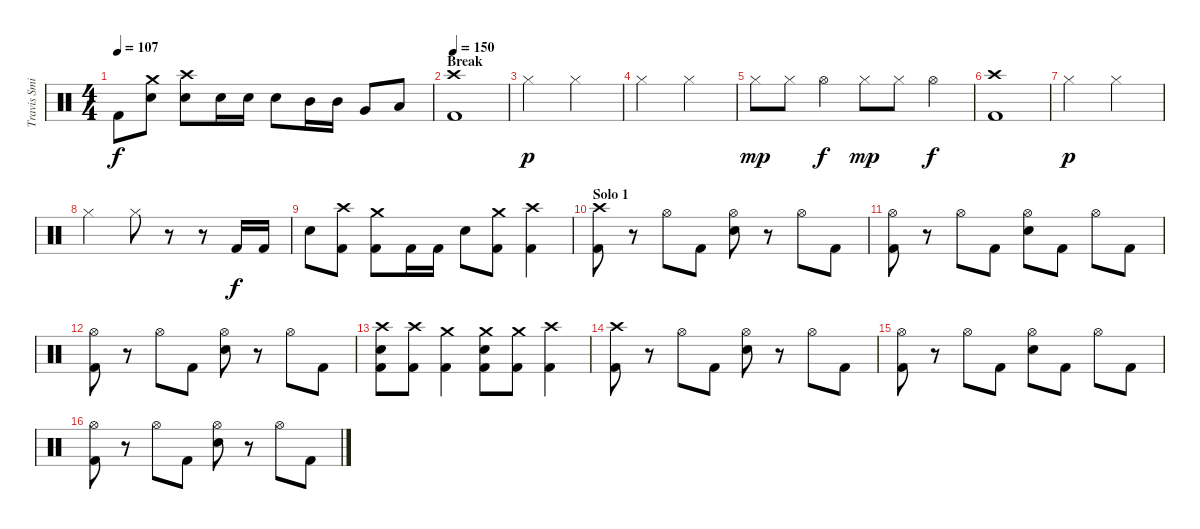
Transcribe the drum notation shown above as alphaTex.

\track ("Travis Smith" "Travis Smi") {instrument percussion}
\staff {score}
\articulation defaults
\ts (4 4)
\tempo 107
\clef neutral
\ks c "Kick (hit) 2".8{dy f}
("Crash medium (hit)" "Electric Snare (hit)").8 ("Crash high (hit)" "Electric Snare (hit)").8 "Electric Snare (hit)".16 "Electric Snare (hit)".16 "Electric Snare (hit)".8 "Mid Tom (hit)".16 "Mid Tom (hit)".16 "Very Low Tom (hit)".8 "Low Floor Tom (hit)".8 |
\section ("" "Break")
\tempo 150
("Crash high (hit)" "Kick (hit) 2").1 |
"Hi-Hat (closed)".2{dy p} "Hi-Hat (closed)".2 |
"Hi-Hat (closed)".2 "Hi-Hat (closed)".2 |
"Hi-Hat (closed)".8{dy mp} "Hi-Hat (closed)".8 "Hi-Hat (open)".4{dy f} "Hi-Hat (closed)".8{dy mp} "Hi-Hat (closed)".8 "Hi-Hat (open)".4{dy f} |
("Crash high (hit)" "Kick (hit) 2").1 |
"Hi-Hat (closed)".2{dy p} "Hi-Hat (closed)".2 |
"Hi-Hat (closed)".2 "Hi-Hat (closed)".8 r.8 r.8 "Kick (hit) 2".16{dy f} "Kick (hit) 2".16 |
"Electric Snare (hit)".8 ("Crash high (hit)" "Kick (hit) 2").8 ("Crash medium (hit)" "Kick (hit) 2").8 "Kick (hit) 2".16 "Kick (hit) 2".16 "Electric Snare (hit)".8 ("Crash medium (hit)" "Kick (hit) 2").8 ("Crash high (hit)" "Kick (hit) 2").4 |
\section ("" "Solo 1")
("Crash high (hit)" "Kick (hit) 2").8 r.8 "Hi-Hat (open)".8 "Kick (hit) 2".8 ("Hi-Hat (open)" "Electric Snare (hit)").8 r.8 "Hi-Hat (open)".8 "Kick (hit) 2".8 |
("Hi-Hat (open)" "Kick (hit) 2").8 r.8 "Hi-Hat (open)".8 "Kick (hit) 2".8 ("Hi-Hat (open)" "Electric Snare (hit)").8 "Kick (hit) 2".8 "Hi-Hat (open)".8 "Kick (hit) 2".8 |
("Hi-Hat (open)" "Kick (hit) 2").8 r.8 "Hi-Hat (open)".8 "Kick (hit) 2".8 ("Hi-Hat (open)" "Electric Snare (hit)").8 r.8 "Hi-Hat (open)".8 "Kick (hit) 2".8 |
("Crash high (hit)" "Electric Snare (hit)" "Kick (hit) 2").8 ("Crash high (hit)" "Kick (hit) 2").8 ("Crash medium (hit)" "Kick (hit) 2").4 ("Crash medium (hit)" "Electric Snare (hit)" "Kick (hit) 2").8 ("Crash medium (hit)" "Kick (hit) 2").8 ("Crash high (hit)" "Kick (hit) 2").4 |
("Crash high (hit)" "Kick (hit) 2").8 r.8 "Hi-Hat (open)".8 "Kick (hit) 2".8 ("Hi-Hat (open)" "Electric Snare (hit)").8 r.8 "Hi-Hat (open)".8 "Kick (hit) 2".8 |
("Hi-Hat (open)" "Kick (hit) 2").8 r.8 "Hi-Hat (open)".8 "Kick (hit) 2".8 ("Hi-Hat (open)" "Electric Snare (hit)").8 "Kick (hit) 2".8 "Hi-Hat (open)".8 "Kick (hit) 2".8 |
("Hi-Hat (open)" "Kick (hit) 2").8 r.8 "Hi-Hat (open)".8 "Kick (hit) 2".8 ("Hi-Hat (open)" "Electric Snare (hit)").8 r.8 "Hi-Hat (open)".8 "Kick (hit) 2".8
